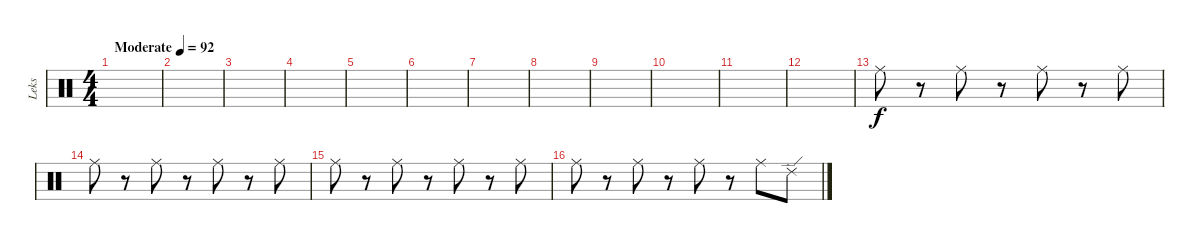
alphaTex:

\track ("Leks" "Leks") {instrument percussion}
\staff {score}
\articulation defaults
\ts (4 4)
\tempo (92 "Moderate")
\clef neutral
\ks c
|
|
|
|
|
|
|
|
|
|
|
|
"Ride (middle)".8 r.8 "Ride (middle)".8 r.8 "Ride (middle)".8 r.8 "Ride (middle)".8 |
"Ride (middle)".8 r.8 "Ride (middle)".8 r.8 "Ride (middle)".8 r.8 "Ride (middle)".8 |
"Ride (middle)".8 r.8 "Ride (middle)".8 r.8 "Ride (middle)".8 r.8 "Ride (middle)".8 |
"Ride (middle)".8 r.8 "Ride (middle)".8 r.8 "Ride (middle)".8 r.8 "Ride (middle)".8 "Ride (edge) 2".8
